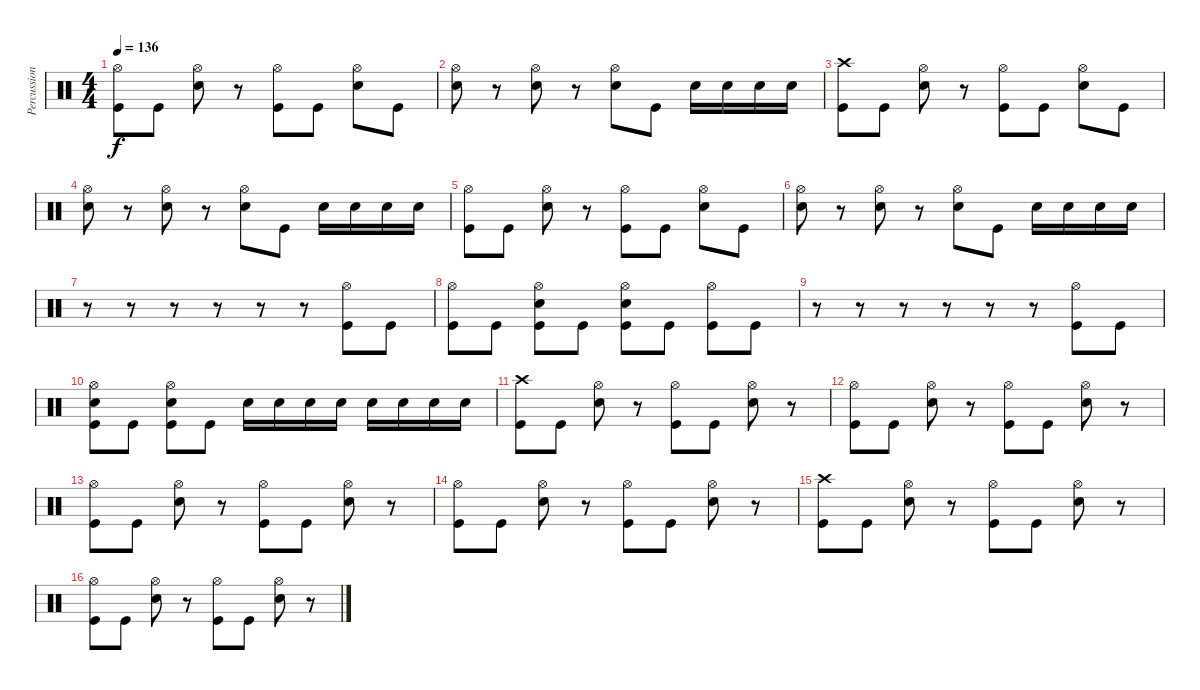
\track ("Percussion" "Percussion") {instrument percussion}
\staff {score}
\articulation defaults
\ts (4 4)
\tempo 136
\clef neutral
\ks c
("Hi-Hat (open)" "Kick (hit)").8{dy f} "Kick (hit)".8 ("Hi-Hat (open)" "Snare (hit) 2").8 r.8 ("Hi-Hat (open)" "Kick (hit)").8 "Kick (hit)".8 ("Hi-Hat (open)" "Snare (hit) 2").8 "Kick (hit)".8 |
("Hi-Hat (open)" "Snare (hit) 2").8 r.8 ("Hi-Hat (open)" "Snare (hit) 2").8 r.8 ("Hi-Hat (open)" "Snare (hit) 2").8 "Kick (hit)".8 "Snare (hit) 2".16 "Snare (hit) 2".16 "Snare (hit) 2".16 "Snare (hit) 2".16 |
("Crash high (hit)" "Kick (hit)").8 "Kick (hit)".8 ("Hi-Hat (open)" "Snare (hit) 2").8 r.8 ("Hi-Hat (open)" "Kick (hit)").8 "Kick (hit)".8 ("Hi-Hat (open)" "Snare (hit) 2").8 "Kick (hit)".8 |
("Hi-Hat (open)" "Snare (hit) 2").8 r.8 ("Hi-Hat (open)" "Snare (hit) 2").8 r.8 ("Hi-Hat (open)" "Snare (hit) 2").8 "Kick (hit)".8 "Snare (hit) 2".16 "Snare (hit) 2".16 "Snare (hit) 2".16 "Snare (hit) 2".16 |
("Hi-Hat (open)" "Kick (hit)").8 "Kick (hit)".8 ("Hi-Hat (open)" "Snare (hit) 2").8 r.8 ("Hi-Hat (open)" "Kick (hit)").8 "Kick (hit)".8 ("Hi-Hat (open)" "Snare (hit) 2").8 "Kick (hit)".8 |
("Hi-Hat (open)" "Snare (hit) 2").8 r.8 ("Hi-Hat (open)" "Snare (hit) 2").8 r.8 ("Hi-Hat (open)" "Snare (hit) 2").8 "Kick (hit)".8 "Snare (hit) 2".16 "Snare (hit) 2".16 "Snare (hit) 2".16 "Snare (hit) 2".16 |
r.8 r.8 r.8 r.8 r.8 r.8 ("Hi-Hat (open)" "Kick (hit)").8 "Kick (hit)".8 |
("Hi-Hat (open)" "Kick (hit)").8 "Kick (hit)".8 ("Hi-Hat (open)" "Snare (hit) 2" "Kick (hit)").8 "Kick (hit)".8 ("Hi-Hat (open)" "Snare (hit) 2" "Kick (hit)").8 "Kick (hit)".8 ("Hi-Hat (open)" "Kick (hit)").8 "Kick (hit)".8 |
r.8 r.8 r.8 r.8 r.8 r.8 ("Hi-Hat (open)" "Kick (hit)").8 "Kick (hit)".8 |
("Hi-Hat (open)" "Snare (hit) 2" "Kick (hit)").8 "Kick (hit)".8 ("Hi-Hat (open)" "Snare (hit) 2" "Kick (hit)").8 "Kick (hit)".8 "Snare (hit) 2".16 "Snare (hit) 2".16 "Snare (hit) 2".16 "Snare (hit) 2".16 "Snare (hit) 2".16 "Snare (hit) 2".16 "Snare (hit) 2".16 "Snare (hit) 2".16 |
("Crash high (hit)" "Kick (hit)").8 "Kick (hit)".8 ("Hi-Hat (open)" "Snare (hit) 2").8 r.8 ("Hi-Hat (open)" "Kick (hit)").8 "Kick (hit)".8 ("Hi-Hat (open)" "Snare (hit) 2").8 r.8 |
("Hi-Hat (open)" "Kick (hit)").8 "Kick (hit)".8 ("Hi-Hat (open)" "Snare (hit) 2").8 r.8 ("Hi-Hat (open)" "Kick (hit)").8 "Kick (hit)".8 ("Hi-Hat (open)" "Snare (hit) 2").8 r.8 |
("Hi-Hat (open)" "Kick (hit)").8 "Kick (hit)".8 ("Hi-Hat (open)" "Snare (hit) 2").8 r.8 ("Hi-Hat (open)" "Kick (hit)").8 "Kick (hit)".8 ("Hi-Hat (open)" "Snare (hit) 2").8 r.8 |
("Hi-Hat (open)" "Kick (hit)").8 "Kick (hit)".8 ("Hi-Hat (open)" "Snare (hit) 2").8 r.8 ("Hi-Hat (open)" "Kick (hit)").8 "Kick (hit)".8 ("Hi-Hat (open)" "Snare (hit) 2").8 r.8 |
("Crash high (hit)" "Kick (hit)").8 "Kick (hit)".8 ("Hi-Hat (open)" "Snare (hit) 2").8 r.8 ("Hi-Hat (open)" "Kick (hit)").8 "Kick (hit)".8 ("Hi-Hat (open)" "Snare (hit) 2").8 r.8 |
("Hi-Hat (open)" "Kick (hit)").8 "Kick (hit)".8 ("Hi-Hat (open)" "Snare (hit) 2").8 r.8 ("Hi-Hat (open)" "Kick (hit)").8 "Kick (hit)".8 ("Hi-Hat (open)" "Snare (hit) 2").8 r.8
